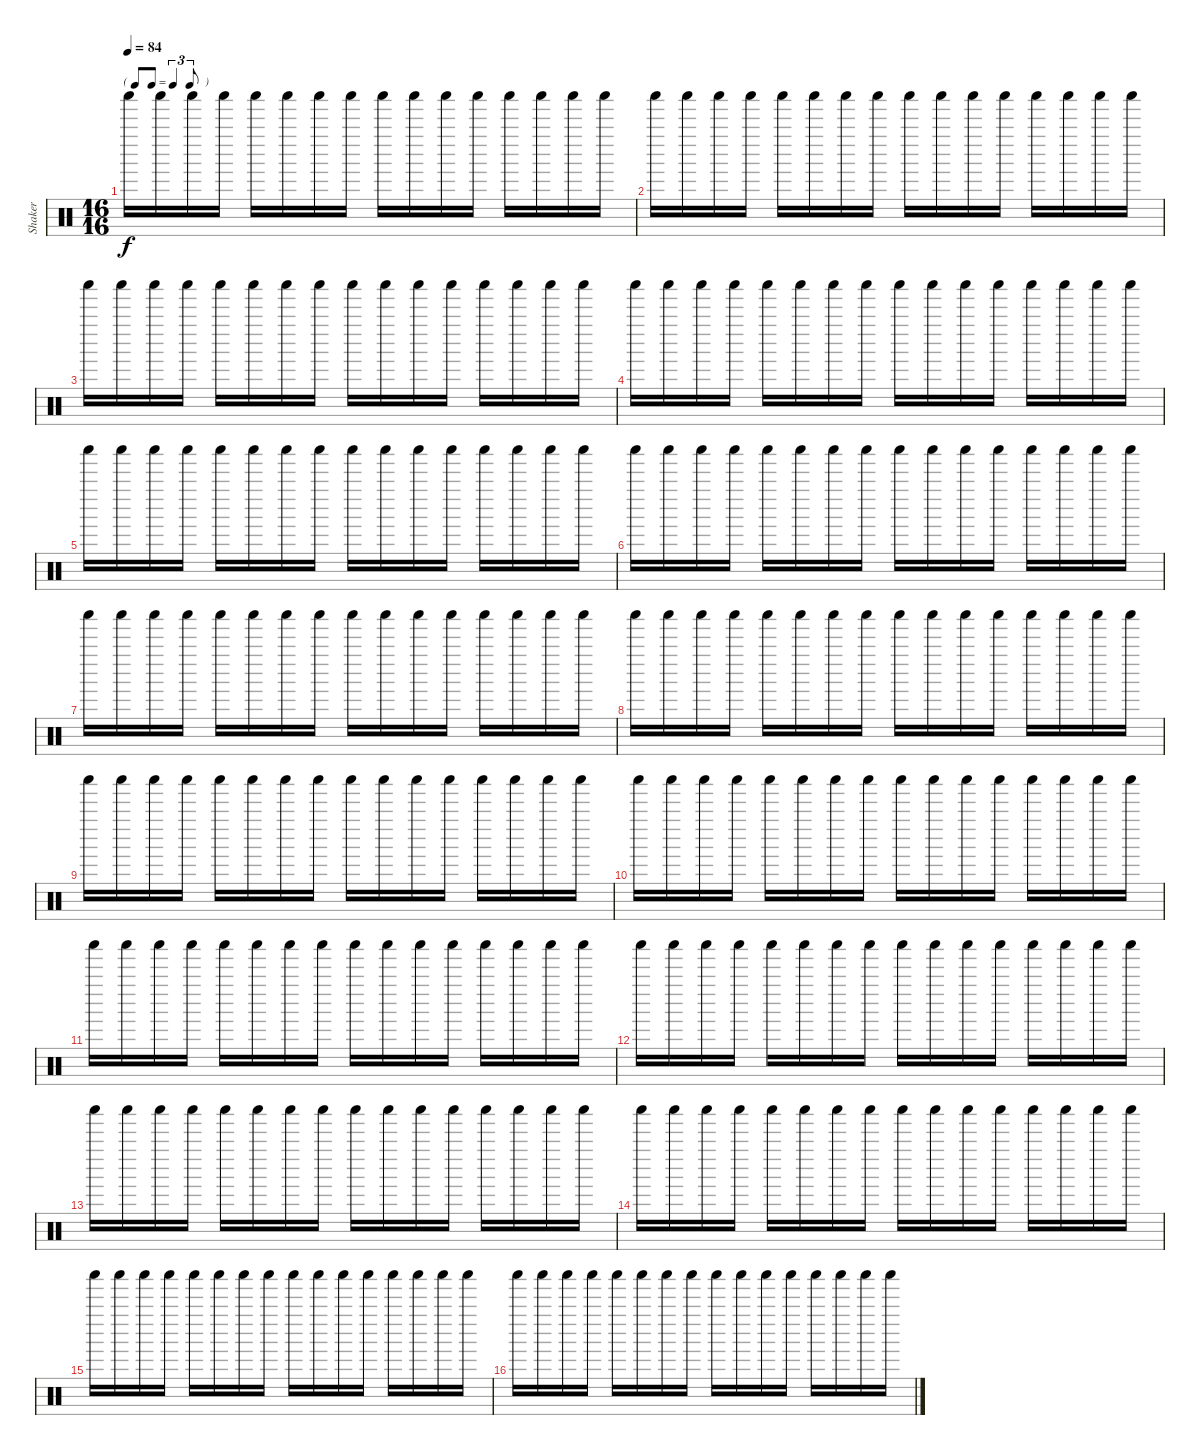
\track ("Shaker" "Shaker") {instrument percussion}
\staff {score}
\articulation defaults
\ts (16 16)
\tf triplet8th
\tempo 84
\clef neutral
\ks c "Shaker (hit)".16{dy f} "Shaker (hit)".16 "Shaker (hit)".16 "Shaker (hit)".16 "Shaker (hit)".16 "Shaker (hit)".16 "Shaker (hit)".16 "Shaker (hit)".16 "Shaker (hit)".16 "Shaker (hit)".16 "Shaker (hit)".16 "Shaker (hit)".16 "Shaker (hit)".16 "Shaker (hit)".16 "Shaker (hit)".16 "Shaker (hit)".16
|
"Shaker (hit)".16 "Shaker (hit)".16 "Shaker (hit)".16 "Shaker (hit)".16 "Shaker (hit)".16 "Shaker (hit)".16 "Shaker (hit)".16 "Shaker (hit)".16 "Shaker (hit)".16 "Shaker (hit)".16 "Shaker (hit)".16 "Shaker (hit)".16 "Shaker (hit)".16 "Shaker (hit)".16 "Shaker (hit)".16 "Shaker (hit)".16 |
"Shaker (hit)".16 "Shaker (hit)".16 "Shaker (hit)".16 "Shaker (hit)".16 "Shaker (hit)".16 "Shaker (hit)".16 "Shaker (hit)".16 "Shaker (hit)".16 "Shaker (hit)".16 "Shaker (hit)".16 "Shaker (hit)".16 "Shaker (hit)".16 "Shaker (hit)".16 "Shaker (hit)".16 "Shaker (hit)".16 "Shaker (hit)".16 |
"Shaker (hit)".16 "Shaker (hit)".16 "Shaker (hit)".16 "Shaker (hit)".16 "Shaker (hit)".16 "Shaker (hit)".16 "Shaker (hit)".16 "Shaker (hit)".16 "Shaker (hit)".16 "Shaker (hit)".16 "Shaker (hit)".16 "Shaker (hit)".16 "Shaker (hit)".16 "Shaker (hit)".16 "Shaker (hit)".16 "Shaker (hit)".16 |
"Shaker (hit)".16 "Shaker (hit)".16 "Shaker (hit)".16 "Shaker (hit)".16 "Shaker (hit)".16 "Shaker (hit)".16 "Shaker (hit)".16 "Shaker (hit)".16 "Shaker (hit)".16 "Shaker (hit)".16 "Shaker (hit)".16 "Shaker (hit)".16 "Shaker (hit)".16 "Shaker (hit)".16 "Shaker (hit)".16 "Shaker (hit)".16 |
"Shaker (hit)".16 "Shaker (hit)".16 "Shaker (hit)".16 "Shaker (hit)".16 "Shaker (hit)".16 "Shaker (hit)".16 "Shaker (hit)".16 "Shaker (hit)".16 "Shaker (hit)".16 "Shaker (hit)".16 "Shaker (hit)".16 "Shaker (hit)".16 "Shaker (hit)".16 "Shaker (hit)".16 "Shaker (hit)".16 "Shaker (hit)".16 |
"Shaker (hit)".16 "Shaker (hit)".16 "Shaker (hit)".16 "Shaker (hit)".16 "Shaker (hit)".16 "Shaker (hit)".16 "Shaker (hit)".16 "Shaker (hit)".16 "Shaker (hit)".16 "Shaker (hit)".16 "Shaker (hit)".16 "Shaker (hit)".16 "Shaker (hit)".16 "Shaker (hit)".16 "Shaker (hit)".16 "Shaker (hit)".16 |
"Shaker (hit)".16 "Shaker (hit)".16 "Shaker (hit)".16 "Shaker (hit)".16 "Shaker (hit)".16 "Shaker (hit)".16 "Shaker (hit)".16 "Shaker (hit)".16 "Shaker (hit)".16 "Shaker (hit)".16 "Shaker (hit)".16 "Shaker (hit)".16 "Shaker (hit)".16 "Shaker (hit)".16 "Shaker (hit)".16 "Shaker (hit)".16 |
"Shaker (hit)".16 "Shaker (hit)".16 "Shaker (hit)".16 "Shaker (hit)".16 "Shaker (hit)".16 "Shaker (hit)".16 "Shaker (hit)".16 "Shaker (hit)".16 "Shaker (hit)".16 "Shaker (hit)".16 "Shaker (hit)".16 "Shaker (hit)".16 "Shaker (hit)".16 "Shaker (hit)".16 "Shaker (hit)".16 "Shaker (hit)".16 |
"Shaker (hit)".16 "Shaker (hit)".16 "Shaker (hit)".16 "Shaker (hit)".16 "Shaker (hit)".16 "Shaker (hit)".16 "Shaker (hit)".16 "Shaker (hit)".16 "Shaker (hit)".16 "Shaker (hit)".16 "Shaker (hit)".16 "Shaker (hit)".16 "Shaker (hit)".16 "Shaker (hit)".16 "Shaker (hit)".16 "Shaker (hit)".16 |
"Shaker (hit)".16 "Shaker (hit)".16 "Shaker (hit)".16 "Shaker (hit)".16 "Shaker (hit)".16 "Shaker (hit)".16 "Shaker (hit)".16 "Shaker (hit)".16 "Shaker (hit)".16 "Shaker (hit)".16 "Shaker (hit)".16 "Shaker (hit)".16 "Shaker (hit)".16 "Shaker (hit)".16 "Shaker (hit)".16 "Shaker (hit)".16 |
"Shaker (hit)".16 "Shaker (hit)".16 "Shaker (hit)".16 "Shaker (hit)".16 "Shaker (hit)".16 "Shaker (hit)".16 "Shaker (hit)".16 "Shaker (hit)".16 "Shaker (hit)".16 "Shaker (hit)".16 "Shaker (hit)".16 "Shaker (hit)".16 "Shaker (hit)".16 "Shaker (hit)".16 "Shaker (hit)".16 "Shaker (hit)".16 |
"Shaker (hit)".16 "Shaker (hit)".16 "Shaker (hit)".16 "Shaker (hit)".16 "Shaker (hit)".16 "Shaker (hit)".16 "Shaker (hit)".16 "Shaker (hit)".16 "Shaker (hit)".16 "Shaker (hit)".16 "Shaker (hit)".16 "Shaker (hit)".16 "Shaker (hit)".16 "Shaker (hit)".16 "Shaker (hit)".16 "Shaker (hit)".16 |
"Shaker (hit)".16 "Shaker (hit)".16 "Shaker (hit)".16 "Shaker (hit)".16 "Shaker (hit)".16 "Shaker (hit)".16 "Shaker (hit)".16 "Shaker (hit)".16 "Shaker (hit)".16 "Shaker (hit)".16 "Shaker (hit)".16 "Shaker (hit)".16 "Shaker (hit)".16 "Shaker (hit)".16 "Shaker (hit)".16 "Shaker (hit)".16 |
"Shaker (hit)".16 "Shaker (hit)".16 "Shaker (hit)".16 "Shaker (hit)".16 "Shaker (hit)".16 "Shaker (hit)".16 "Shaker (hit)".16 "Shaker (hit)".16 "Shaker (hit)".16 "Shaker (hit)".16 "Shaker (hit)".16 "Shaker (hit)".16 "Shaker (hit)".16 "Shaker (hit)".16 "Shaker (hit)".16 "Shaker (hit)".16 |
"Shaker (hit)".16 "Shaker (hit)".16 "Shaker (hit)".16 "Shaker (hit)".16 "Shaker (hit)".16 "Shaker (hit)".16 "Shaker (hit)".16 "Shaker (hit)".16 "Shaker (hit)".16 "Shaker (hit)".16 "Shaker (hit)".16 "Shaker (hit)".16 "Shaker (hit)".16 "Shaker (hit)".16 "Shaker (hit)".16 "Shaker (hit)".16
